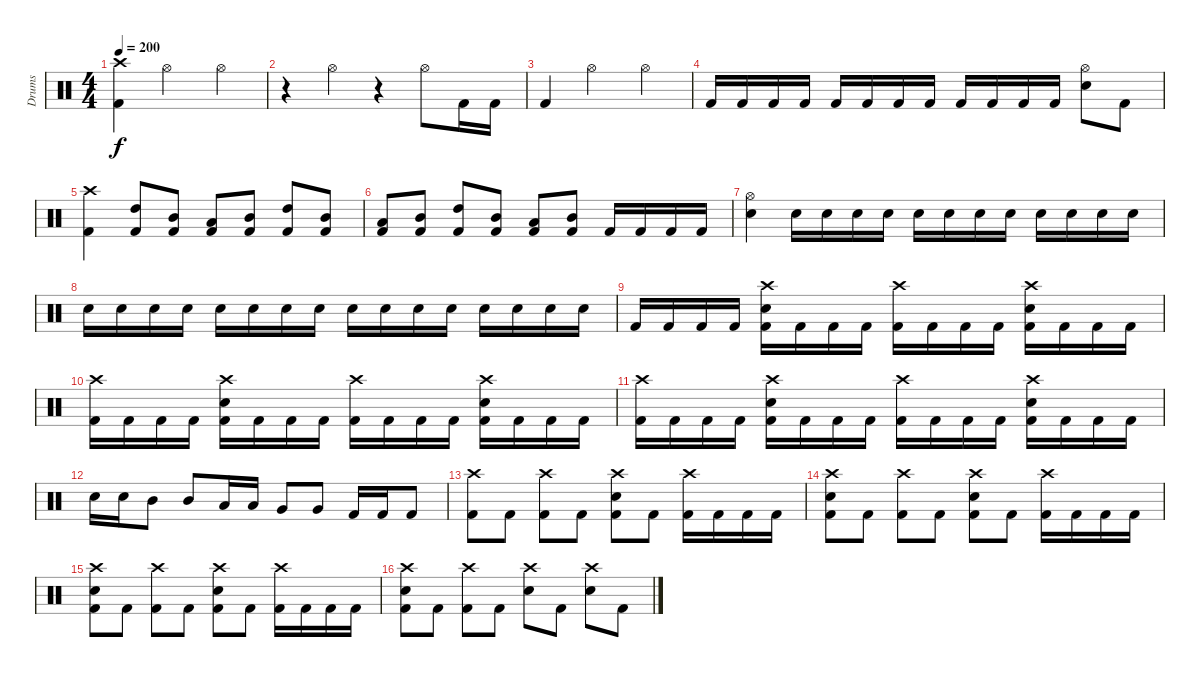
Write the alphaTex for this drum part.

\track ("Drums" "Drums") {instrument percussion}
\staff {score}
\articulation defaults
\ts (4 4)
\tempo 200
\clef neutral
\ks c
("Crash high (hit)" "Kick (hit) 2").4{dy f} "Hi-Hat (open)".2 "Hi-Hat (open)".4 |
r.4 "Hi-Hat (open)".4 r.4 "Hi-Hat (open)".8 "Kick (hit) 2".16 "Kick (hit) 2".16 |
"Kick (hit) 2".4 "Hi-Hat (open)".2 "Hi-Hat (open)".4 |
"Kick (hit) 2".16 "Kick (hit) 2".16 "Kick (hit) 2".16 "Kick (hit) 2".16 "Kick (hit) 2".16 "Kick (hit) 2".16 "Kick (hit) 2".16 "Kick (hit) 2".16 "Kick (hit) 2".16 "Kick (hit) 2".16 "Kick (hit) 2".16 "Kick (hit) 2".16 ("Snare (hit) 2" "Hi-Hat (open)").8 "Kick (hit) 2".8 |
("Crash high (hit)" "Kick (hit) 2").4 ("High Tom (hit)" "Kick (hit) 2").8 ("Mid Tom (hit)" "Kick (hit) 2").8 ("Low Tom (hit)" "Kick (hit) 2").8 ("Mid Tom (hit)" "Kick (hit) 2").8 ("High Tom (hit)" "Kick (hit) 2").8 ("Mid Tom (hit)" "Kick (hit) 2").8 |
("Low Tom (hit)" "Kick (hit) 2").8 ("Mid Tom (hit)" "Kick (hit) 2").8 ("High Tom (hit)" "Kick (hit) 2").8 ("Mid Tom (hit)" "Kick (hit) 2").8 ("Low Tom (hit)" "Kick (hit) 2").8 ("Mid Tom (hit)" "Kick (hit) 2").8 "Kick (hit) 2".16 "Kick (hit) 2".16 "Kick (hit) 2".16 "Kick (hit) 2".16 |
("Snare (hit) 2" "Hi-Hat (open)").4 "Snare (hit) 2".16 "Snare (hit) 2".16 "Snare (hit) 2".16 "Snare (hit) 2".16 "Snare (hit) 2".16 "Snare (hit) 2".16 "Snare (hit) 2".16 "Snare (hit) 2".16 "Snare (hit) 2".16 "Snare (hit) 2".16 "Snare (hit) 2".16 "Snare (hit) 2".16 |
"Snare (hit) 2".16 "Snare (hit) 2".16 "Snare (hit) 2".16 "Snare (hit) 2".16 "Snare (hit) 2".16 "Snare (hit) 2".16 "Snare (hit) 2".16 "Snare (hit) 2".16 "Snare (hit) 2".16 "Snare (hit) 2".16 "Snare (hit) 2".16 "Snare (hit) 2".16 "Snare (hit) 2".16 "Snare (hit) 2".16 "Snare (hit) 2".16 "Snare (hit) 2".16 |
"Kick (hit) 2".16 "Kick (hit) 2".16 "Kick (hit) 2".16 "Kick (hit) 2".16 ("Crash high (hit)" "Snare (hit) 2" "Kick (hit) 2").16 "Kick (hit) 2".16 "Kick (hit) 2".16 "Kick (hit) 2".16 ("Crash high (hit)" "Kick (hit) 2").16 "Kick (hit) 2".16 "Kick (hit) 2".16 "Kick (hit) 2".16 ("Crash high (hit)" "Snare (hit) 2" "Kick (hit) 2").16 "Kick (hit) 2".16 "Kick (hit) 2".16 "Kick (hit) 2".16 |
("Crash high (hit)" "Kick (hit) 2").16 "Kick (hit) 2".16 "Kick (hit) 2".16 "Kick (hit) 2".16 ("Crash high (hit)" "Snare (hit) 2" "Kick (hit) 2").16 "Kick (hit) 2".16 "Kick (hit) 2".16 "Kick (hit) 2".16 ("Crash high (hit)" "Kick (hit) 2").16 "Kick (hit) 2".16 "Kick (hit) 2".16 "Kick (hit) 2".16 ("Crash high (hit)" "Snare (hit) 2" "Kick (hit) 2").16 "Kick (hit) 2".16 "Kick (hit) 2".16 "Kick (hit) 2".16 |
("Crash high (hit)" "Kick (hit) 2").16 "Kick (hit) 2".16 "Kick (hit) 2".16 "Kick (hit) 2".16 ("Crash high (hit)" "Snare (hit) 2" "Kick (hit) 2").16 "Kick (hit) 2".16 "Kick (hit) 2".16 "Kick (hit) 2".16 ("Crash high (hit)" "Kick (hit) 2").16 "Kick (hit) 2".16 "Kick (hit) 2".16 "Kick (hit) 2".16 ("Crash high (hit)" "Snare (hit) 2" "Kick (hit) 2").16 "Kick (hit) 2".16 "Kick (hit) 2".16 "Kick (hit) 2".16 |
"Snare (hit) 2".16 "Snare (hit) 2".16 "Mid Tom (hit)".8 "Mid Tom (hit)".8 "Low Tom (hit)".16 "Low Tom (hit)".16 "Very Low Tom (hit)".8 "Very Low Tom (hit)".8 "Kick (hit) 2".16 "Kick (hit) 2".16 "Kick (hit) 2".8 |
("Crash high (hit)" "Kick (hit) 2").8 "Kick (hit) 2".8 ("Crash high (hit)" "Kick (hit) 2").8 "Kick (hit) 2".8 ("Crash high (hit)" "Snare (hit) 2" "Kick (hit) 2").8 "Kick (hit) 2".8 ("Crash high (hit)" "Kick (hit) 2").16 "Kick (hit) 2".16 "Kick (hit) 2".16 "Kick (hit) 2".16 |
("Crash high (hit)" "Snare (hit) 2" "Kick (hit) 2").8 "Kick (hit) 2".8 ("Crash high (hit)" "Kick (hit) 2").8 "Kick (hit) 2".8 ("Crash high (hit)" "Snare (hit) 2" "Kick (hit) 2").8 "Kick (hit) 2".8 ("Crash high (hit)" "Kick (hit) 2").16 "Kick (hit) 2".16 "Kick (hit) 2".16 "Kick (hit) 2".16 |
("Crash high (hit)" "Snare (hit) 2" "Kick (hit) 2").8 "Kick (hit) 2".8 ("Crash high (hit)" "Kick (hit) 2").8 "Kick (hit) 2".8 ("Crash high (hit)" "Snare (hit) 2" "Kick (hit) 2").8 "Kick (hit) 2".8 ("Crash high (hit)" "Kick (hit) 2").16 "Kick (hit) 2".16 "Kick (hit) 2".16 "Kick (hit) 2".16 |
("Crash high (hit)" "Snare (hit) 2" "Kick (hit) 2").8 "Kick (hit) 2".8 ("Crash high (hit)" "Kick (hit) 2").8 "Kick (hit) 2".8 ("Crash high (hit)" "Snare (hit) 2").8 "Kick (hit) 2".8 ("Crash high (hit)" "Snare (hit) 2").8 "Kick (hit) 2".8
